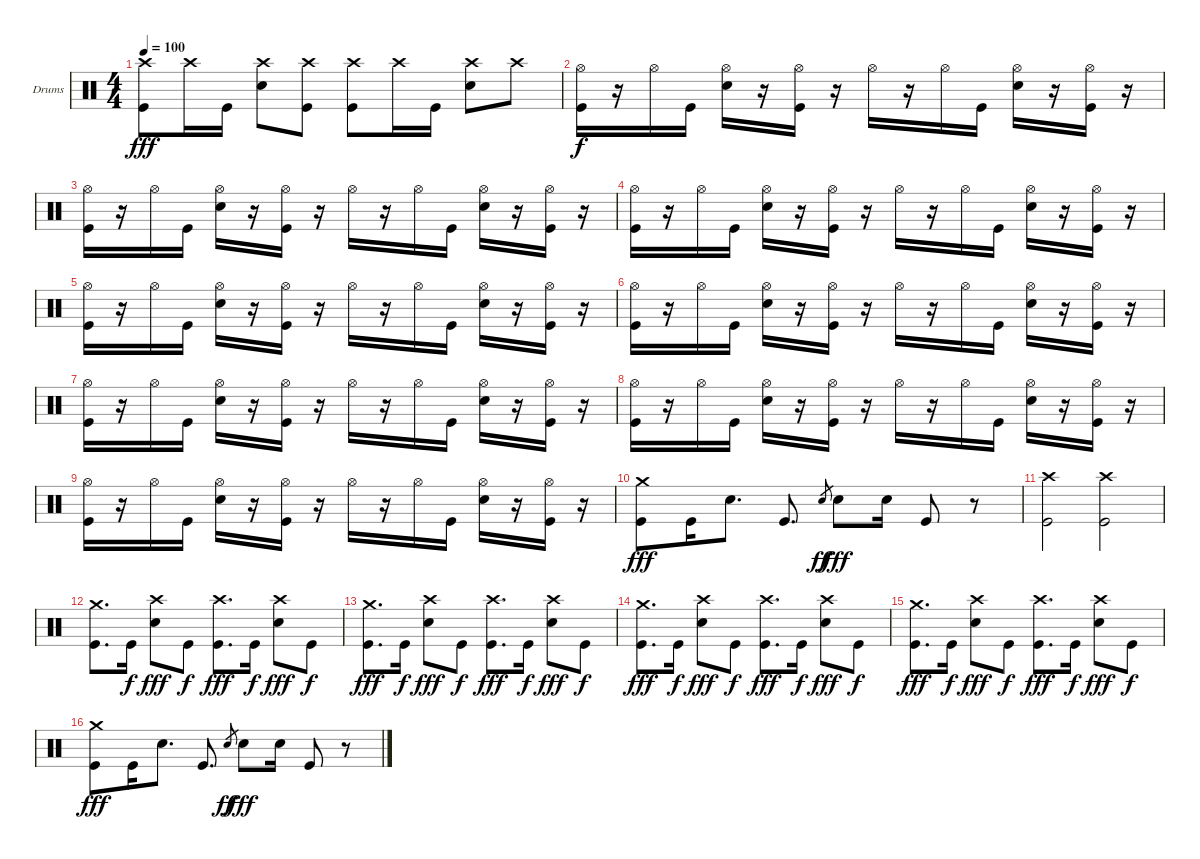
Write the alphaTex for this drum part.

\bracketExtendMode groupsimilarinstruments
\firstSystemTrackNameOrientation horizontal
\otherSystemsTrackNameOrientation horizontal
\track ("Lars Ulrich (Drum)" "Drums") {instrument percussion}
\staff {score}
\articulation defaults
\ts (4 4)
\tempo 100
\clef neutral
\scale
0.333333
\ks c
("Crash high (hit)" "Kick (hit)").8{dy fff} "Crash high (hit)".16 "Kick (hit)".16 ("Crash high (hit)" "Snare (hit) 2").8 ("Crash high (hit)" "Kick (hit)").8 ("Crash high (hit)" "Kick (hit)").8 "Crash high (hit)".16 "Kick (hit)".16 ("Crash high (hit)" "Snare (hit) 2").8 "Crash high (hit)".8 |
\scale
0.333333 ("Hi-Hat (open)" "Kick (hit)").16{dy f} r.16 "Hi-Hat (open)".16 "Kick (hit)".16 ("Hi-Hat (open)" "Snare (hit) 2").16 r.16 ("Hi-Hat (open)" "Kick (hit)").16 r.16 "Hi-Hat (open)".16 r.16 "Hi-Hat (open)".16 "Kick (hit)".16 ("Hi-Hat (open)" "Snare (hit) 2").16 r.16 ("Hi-Hat (open)" "Kick (hit)").16 r.16 |
\scale
0.333333 ("Hi-Hat (open)" "Kick (hit)").16 r.16 "Hi-Hat (open)".16 "Kick (hit)".16 ("Hi-Hat (open)" "Snare (hit) 2").16 r.16 ("Hi-Hat (open)" "Kick (hit)").16 r.16 "Hi-Hat (open)".16 r.16 "Hi-Hat (open)".16 "Kick (hit)".16 ("Hi-Hat (open)" "Snare (hit) 2").16 r.16 ("Hi-Hat (open)" "Kick (hit)").16 r.16 |
\scale
0.333333 ("Hi-Hat (open)" "Kick (hit)").16 r.16 "Hi-Hat (open)".16 "Kick (hit)".16 ("Hi-Hat (open)" "Snare (hit) 2").16 r.16 ("Hi-Hat (open)" "Kick (hit)").16 r.16 "Hi-Hat (open)".16 r.16 "Hi-Hat (open)".16 "Kick (hit)".16 ("Hi-Hat (open)" "Snare (hit) 2").16 r.16 ("Hi-Hat (open)" "Kick (hit)").16 r.16 |
\scale
0.333333 ("Hi-Hat (open)" "Kick (hit)").16 r.16 "Hi-Hat (open)".16 "Kick (hit)".16 ("Hi-Hat (open)" "Snare (hit) 2").16 r.16 ("Hi-Hat (open)" "Kick (hit)").16 r.16 "Hi-Hat (open)".16 r.16 "Hi-Hat (open)".16 "Kick (hit)".16 ("Hi-Hat (open)" "Snare (hit) 2").16 r.16 ("Hi-Hat (open)" "Kick (hit)").16 r.16 |
\scale
0.333333 ("Hi-Hat (open)" "Kick (hit)").16 r.16 "Hi-Hat (open)".16 "Kick (hit)".16 ("Hi-Hat (open)" "Snare (hit) 2").16 r.16 ("Hi-Hat (open)" "Kick (hit)").16 r.16 "Hi-Hat (open)".16 r.16 "Hi-Hat (open)".16 "Kick (hit)".16 ("Hi-Hat (open)" "Snare (hit) 2").16 r.16 ("Hi-Hat (open)" "Kick (hit)").16 r.16 |
\scale
0.333333 ("Hi-Hat (open)" "Kick (hit)").16 r.16 "Hi-Hat (open)".16 "Kick (hit)".16 ("Hi-Hat (open)" "Snare (hit) 2").16 r.16 ("Hi-Hat (open)" "Kick (hit)").16 r.16 "Hi-Hat (open)".16 r.16 "Hi-Hat (open)".16 "Kick (hit)".16 ("Hi-Hat (open)" "Snare (hit) 2").16 r.16 ("Hi-Hat (open)" "Kick (hit)").16 r.16 |
\scale
0.333333 ("Hi-Hat (open)" "Kick (hit)").16 r.16 "Hi-Hat (open)".16 "Kick (hit)".16 ("Hi-Hat (open)" "Snare (hit) 2").16 r.16 ("Hi-Hat (open)" "Kick (hit)").16 r.16 "Hi-Hat (open)".16 r.16 "Hi-Hat (open)".16 "Kick (hit)".16 ("Hi-Hat (open)" "Snare (hit) 2").16 r.16 ("Hi-Hat (open)" "Kick (hit)").16 r.16 |
\scale
0.333333 ("Hi-Hat (open)" "Kick (hit)").16 r.16 "Hi-Hat (open)".16 "Kick (hit)".16 ("Hi-Hat (open)" "Snare (hit) 2").16 r.16 ("Hi-Hat (open)" "Kick (hit)").16 r.16 "Hi-Hat (open)".16 r.16 "Hi-Hat (open)".16 "Kick (hit)".16 ("Hi-Hat (open)" "Snare (hit) 2").16 r.16 ("Hi-Hat (open)" "Kick (hit)").16 r.16 |
\scale
0.333333 ("Crash medium (hit)" "Kick (hit)").8{dy fff} "Kick (hit)".16 "Snare (hit) 2".8{d} "Kick (hit)".8{d} "Snare (hit) 2".8{gr dy ff} "Snare (hit) 2".8{dy fff} "Snare (hit) 2".16 "Kick (hit)".8 r.8 |
\scale
0.333333 ("Crash high (hit)" "Kick (hit)").2 ("Crash high (hit)" "Kick (hit)").2 |
\scale
0.333333 ("Crash medium (hit)" "Kick (hit)").8{d} "Kick (hit)".16{dy f} ("Crash high (hit)" "Snare (hit) 2").8{dy fff} "Kick (hit)".8{dy f} ("Crash high (hit)" "Kick (hit)").8{d dy fff} "Kick (hit)".16{dy f} ("Crash high (hit)" "Snare (hit) 2").8{dy fff} "Kick (hit)".8{dy f} |
\scale
0.333333 ("Crash medium (hit)" "Kick (hit)").8{d dy fff} "Kick (hit)".16{dy f} ("Crash high (hit)" "Snare (hit) 2").8{dy fff} "Kick (hit)".8{dy f} ("Crash high (hit)" "Kick (hit)").8{d dy fff} "Kick (hit)".16{dy f} ("Crash high (hit)" "Snare (hit) 2").8{dy fff} "Kick (hit)".8{dy f} |
\scale
0.333333 ("Crash medium (hit)" "Kick (hit)").8{d dy fff} "Kick (hit)".16{dy f} ("Crash high (hit)" "Snare (hit) 2").8{dy fff} "Kick (hit)".8{dy f} ("Crash high (hit)" "Kick (hit)").8{d dy fff} "Kick (hit)".16{dy f} ("Crash high (hit)" "Snare (hit) 2").8{dy fff} "Kick (hit)".8{dy f} |
\scale
0.333333 ("Crash medium (hit)" "Kick (hit)").8{d dy fff} "Kick (hit)".16{dy f} ("Crash high (hit)" "Snare (hit) 2").8{dy fff} "Kick (hit)".8{dy f} ("Crash high (hit)" "Kick (hit)").8{d dy fff} "Kick (hit)".16{dy f} ("Crash high (hit)" "Snare (hit) 2").8{dy fff} "Kick (hit)".8{dy f} |
\scale
0.333333 ("Crash medium (hit)" "Kick (hit)").8{dy fff} "Kick (hit)".16 "Snare (hit) 2".8{d} "Kick (hit)".8{d} "Snare (hit) 2".8{gr dy ff} "Snare (hit) 2".8{dy fff} "Snare (hit) 2".16 "Kick (hit)".8 r.8
